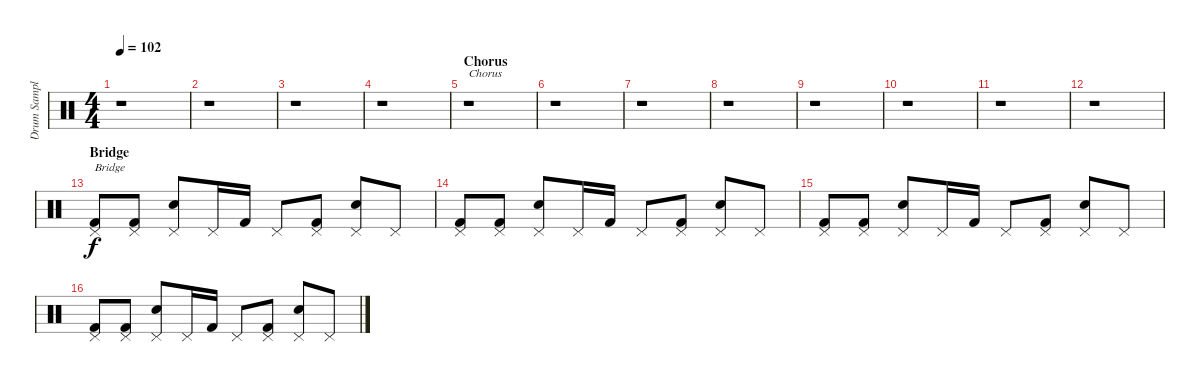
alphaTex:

\track ("Drum Sample" "Drum Sampl") {instrument percussion}
\staff {score}
\articulation defaults
\ts (4 4)
\tempo 102
\clef neutral
\ks c
r.1{dy f} |
r.1 |
r.1 |
r.1 |
\section ("" "Chorus")
r.1{txt "Chorus"} |
r.1 |
r.1 |
r.1 |
r.1 |
r.1 |
r.1 |
r.1 |
\section ("" "Bridge")
("Pedal Hi-Hat (hit)" "Kick (hit) 2").8{txt "Bridge"} ("Pedal Hi-Hat (hit)" "Kick (hit) 2").8 ("Pedal Hi-Hat (hit)" "Electric Snare (hit)").8 "Pedal Hi-Hat (hit)".16 "Kick (hit) 2".16 "Pedal Hi-Hat (hit)".8 ("Pedal Hi-Hat (hit)" "Kick (hit) 2").8 ("Pedal Hi-Hat (hit)" "Electric Snare (hit)").8 "Pedal Hi-Hat (hit)".8 |
("Pedal Hi-Hat (hit)" "Kick (hit) 2").8 ("Pedal Hi-Hat (hit)" "Kick (hit) 2").8 ("Pedal Hi-Hat (hit)" "Electric Snare (hit)").8 "Pedal Hi-Hat (hit)".16 "Kick (hit) 2".16 "Pedal Hi-Hat (hit)".8 ("Pedal Hi-Hat (hit)" "Kick (hit) 2").8 ("Pedal Hi-Hat (hit)" "Electric Snare (hit)").8 "Pedal Hi-Hat (hit)".8 |
("Pedal Hi-Hat (hit)" "Kick (hit) 2").8 ("Pedal Hi-Hat (hit)" "Kick (hit) 2").8 ("Pedal Hi-Hat (hit)" "Electric Snare (hit)").8 "Pedal Hi-Hat (hit)".16 "Kick (hit) 2".16 "Pedal Hi-Hat (hit)".8 ("Pedal Hi-Hat (hit)" "Kick (hit) 2").8 ("Pedal Hi-Hat (hit)" "Electric Snare (hit)").8 "Pedal Hi-Hat (hit)".8 |
("Pedal Hi-Hat (hit)" "Kick (hit) 2").8 ("Pedal Hi-Hat (hit)" "Kick (hit) 2").8 ("Pedal Hi-Hat (hit)" "Electric Snare (hit)").8 "Pedal Hi-Hat (hit)".16 "Kick (hit) 2".16 "Pedal Hi-Hat (hit)".8 ("Pedal Hi-Hat (hit)" "Kick (hit) 2").8 ("Pedal Hi-Hat (hit)" "Electric Snare (hit)").8 "Pedal Hi-Hat (hit)".8
